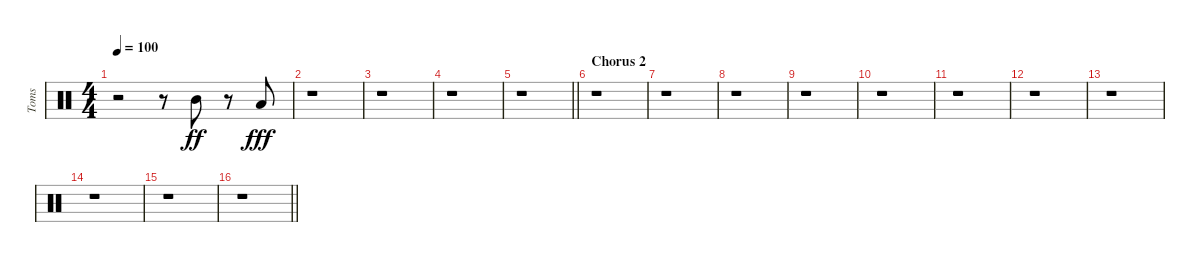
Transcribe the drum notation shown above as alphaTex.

\track ("Toms" "Toms") {instrument percussion}
\staff {score}
\articulation defaults
\ts (4 4)
\tempo 100
\clef neutral
\ks c
r.2{dy ff} r.8 "Mid Tom (hit)".8{balance 8} r.8 "Low Tom (hit)".8{dy fff balance 5} |
r.1 |
r.1 |
r.1 |
\barLineRight lightlight
r.1 |
\section ("" "Chorus 2")
r.1 |
r.1 |
r.1 |
r.1 |
r.1 |
r.1 |
r.1 |
r.1 |
r.1 |
r.1 |
\barLineRight lightlight
r.1
